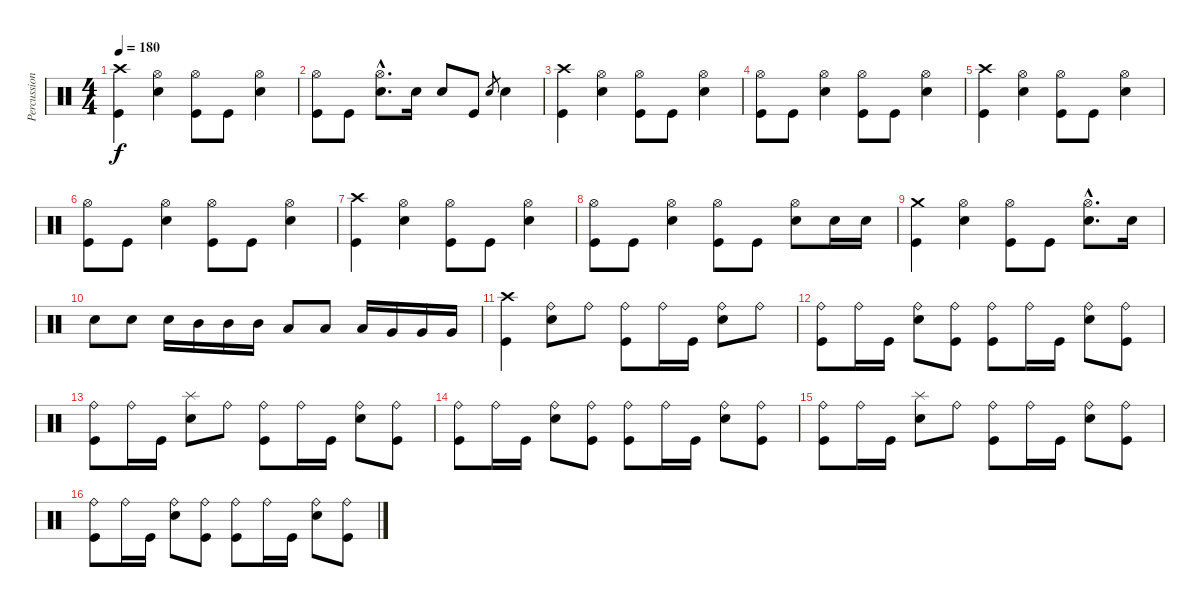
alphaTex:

\track ("Percussions" "Percussion") {instrument percussion}
\staff {score}
\articulation defaults
\ts (4 4)
\tempo 180
\clef neutral
\ks c
("Kick (hit)" "Crash high (hit)").4{dy f} ("Electric Snare (hit)" "Hi-Hat (open)").4 ("Kick (hit)" "Hi-Hat (open)").8 "Kick (hit)".8 ("Electric Snare (hit)" "Hi-Hat (open)").4 |
("Kick (hit)" "Hi-Hat (open)").8 "Kick (hit)".8 ("Electric Snare (hit)"{hac} "Hi-Hat (open)"{hac}).8{d} "Electric Snare (hit)".16 "Electric Snare (hit)".8 "Kick (hit)".8 "Electric Snare (hit)".8{gr} "Electric Snare (hit)".4 |
("Kick (hit)" "Crash high (hit)").4 ("Electric Snare (hit)" "Hi-Hat (open)").4 ("Kick (hit)" "Hi-Hat (open)").8 "Kick (hit)".8 ("Electric Snare (hit)" "Hi-Hat (open)").4 |
("Kick (hit)" "Hi-Hat (open)").8 "Kick (hit)".8 ("Electric Snare (hit)" "Hi-Hat (open)").4 ("Kick (hit)" "Hi-Hat (open)").8 "Kick (hit)".8 ("Electric Snare (hit)" "Hi-Hat (open)").4 |
("Kick (hit)" "Crash high (hit)").4 ("Electric Snare (hit)" "Hi-Hat (open)").4 ("Kick (hit)" "Hi-Hat (open)").8 "Kick (hit)".8 ("Electric Snare (hit)" "Hi-Hat (open)").4 |
("Kick (hit)" "Hi-Hat (open)").8 "Kick (hit)".8 ("Electric Snare (hit)" "Hi-Hat (open)").4 ("Kick (hit)" "Hi-Hat (open)").8 "Kick (hit)".8 ("Electric Snare (hit)" "Hi-Hat (open)").4 |
("Kick (hit)" "Crash high (hit)").4 ("Electric Snare (hit)" "Hi-Hat (open)").4 ("Kick (hit)" "Hi-Hat (open)").8 "Kick (hit)".8 ("Electric Snare (hit)" "Hi-Hat (open)").4 |
("Kick (hit)" "Hi-Hat (open)").8 "Kick (hit)".8 ("Electric Snare (hit)" "Hi-Hat (open)").4 ("Kick (hit)" "Hi-Hat (open)").8 "Kick (hit)".8 ("Electric Snare (hit)" "Hi-Hat (open)").8 "Electric Snare (hit)".16 "Electric Snare (hit)".16 |
("Kick (hit)" "Crash medium (hit)").4 ("Electric Snare (hit)" "Hi-Hat (open)").4 ("Kick (hit)" "Hi-Hat (open)").8 "Kick (hit)".8 ("Electric Snare (hit)"{hac} "Hi-Hat (open)"{hac}).8{d} "Electric Snare (hit)".16 |
"Electric Snare (hit)".8 "Electric Snare (hit)".8 "Electric Snare (hit)".16 "Mid Tom (hit)".16 "Mid Tom (hit)".16 "Mid Tom (hit)".16 "Low Tom (hit)".8 "Low Tom (hit)".8 "Low Tom (hit)".16 "Very Low Tom (hit)".16 "Very Low Tom (hit)".16 "Very Low Tom (hit)".16 |
("Kick (hit)" "Crash high (hit)").4 ("Electric Snare (hit)" "Ride (bell)").8 "Ride (bell)".8 ("Kick (hit)" "Ride (bell)").8 "Ride (bell)".16 "Kick (hit)".16 ("Electric Snare (hit)" "Ride (bell)").8 "Ride (bell)".8 |
("Kick (hit)" "Ride (bell)").8 "Ride (bell)".16 "Kick (hit)".16 ("Electric Snare (hit)" "Ride (bell)").8 ("Kick (hit)" "Ride (bell)").8 ("Kick (hit)" "Ride (bell)").8 "Ride (bell)".16 "Kick (hit)".16 ("Electric Snare (hit)" "Ride (bell)").8 ("Kick (hit)" "Ride (bell)").8 |
("Kick (hit)" "Ride (bell)").8 "Ride (bell)".16 "Kick (hit)".16 ("Electric Snare (hit)" "Splash (hit)").8 "Ride (bell)".8 ("Kick (hit)" "Ride (bell)").8 "Ride (bell)".16 "Kick (hit)".16 ("Electric Snare (hit)" "Ride (bell)").8 ("Kick (hit)" "Ride (bell)").8 |
("Kick (hit)" "Ride (bell)").8 "Ride (bell)".16 "Kick (hit)".16 ("Electric Snare (hit)" "Ride (bell)").8 ("Kick (hit)" "Ride (bell)").8 ("Kick (hit)" "Ride (bell)").8 "Ride (bell)".16 "Kick (hit)".16 ("Electric Snare (hit)" "Ride (bell)").8 ("Kick (hit)" "Ride (bell)").8 |
("Kick (hit)" "Ride (bell)").8 "Ride (bell)".16 "Kick (hit)".16 ("Electric Snare (hit)" "Splash (hit)").8 "Ride (bell)".8 ("Kick (hit)" "Ride (bell)").8 "Ride (bell)".16 "Kick (hit)".16 ("Electric Snare (hit)" "Ride (bell)").8 ("Kick (hit)" "Ride (bell)").8 |
("Kick (hit)" "Ride (bell)").8 "Ride (bell)".16 "Kick (hit)".16 ("Electric Snare (hit)" "Ride (bell)").8 ("Kick (hit)" "Ride (bell)").8 ("Kick (hit)" "Ride (bell)").8 "Ride (bell)".16 "Kick (hit)".16 ("Electric Snare (hit)" "Ride (bell)").8 ("Kick (hit)" "Ride (bell)").8
